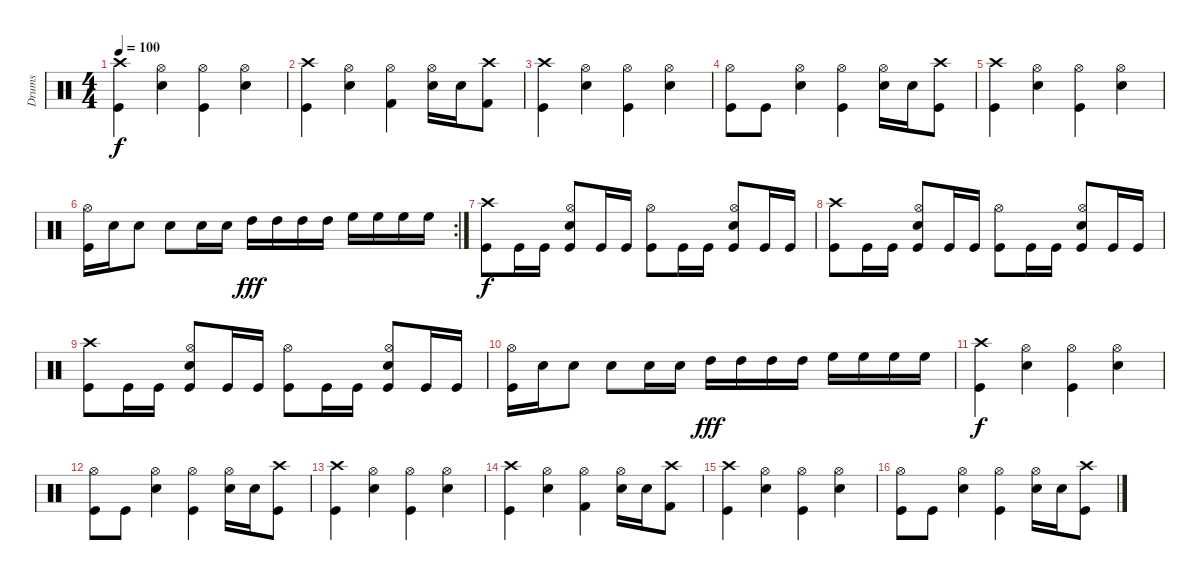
\track ("Drums" "Drums") {instrument percussion}
\staff {score}
\articulation defaults
\ts (4 4)
\tempo 100
\clef neutral
\ks c
("Crash high (hit)" "Kick (hit)").4{dy f} ("Hi-Hat (open)" "Electric Snare (hit)").4 ("Hi-Hat (open)" "Kick (hit)").4 ("Hi-Hat (open)" "Electric Snare (hit)").4 |
("Crash high (hit)" "Kick (hit)").4 ("Hi-Hat (open)" "Electric Snare (hit)").4 ("Hi-Hat (open)" "Kick (hit) 2").4 ("Hi-Hat (open)" "Electric Snare (hit)").16 "Electric Snare (hit)".16 ("Crash high (hit)" "Kick (hit) 2").8 |
("Crash high (hit)" "Kick (hit)").4 ("Hi-Hat (open)" "Electric Snare (hit)").4 ("Hi-Hat (open)" "Kick (hit)").4 ("Hi-Hat (open)" "Electric Snare (hit)").4 |
("Hi-Hat (open)" "Kick (hit)").8 "Kick (hit)".8 ("Hi-Hat (open)" "Electric Snare (hit)").4 ("Hi-Hat (open)" "Kick (hit)").4 ("Hi-Hat (open)" "Electric Snare (hit)").16 "Electric Snare (hit)".16 ("Crash high (hit)" "Kick (hit)").8 |
("Crash high (hit)" "Kick (hit)").4 ("Hi-Hat (open)" "Electric Snare (hit)").4 ("Hi-Hat (open)" "Kick (hit)").4 ("Hi-Hat (open)" "Electric Snare (hit)").4 |
\rc 2
("Hi-Hat (open)" "Kick (hit)").16 "Electric Snare (hit)".16 "Electric Snare (hit)".8 "Electric Snare (hit)".8 "Electric Snare (hit)".16 "Electric Snare (hit)".16 "High Tom (hit)".16{dy fff} "High Tom (hit)".16 "High Tom (hit)".16 "High Tom (hit)".16 "High Floor Tom (hit)".16 "High Floor Tom (hit)".16 "High Floor Tom (hit)".16 "High Floor Tom (hit)".16 |
("Crash high (hit)" "Kick (hit)").8{dy f} "Kick (hit)".16 "Kick (hit)".16 ("Hi-Hat (open)" "Electric Snare (hit)" "Kick (hit)").8 "Kick (hit)".16 "Kick (hit)".16 ("Hi-Hat (open)" "Kick (hit)").8 "Kick (hit)".16 "Kick (hit)".16 ("Hi-Hat (open)" "Electric Snare (hit)" "Kick (hit)").8 "Kick (hit)".16 "Kick (hit)".16 |
("Crash high (hit)" "Kick (hit)").8 "Kick (hit)".16 "Kick (hit)".16 ("Hi-Hat (open)" "Electric Snare (hit)" "Kick (hit)").8 "Kick (hit)".16 "Kick (hit)".16 ("Hi-Hat (open)" "Kick (hit)").8 "Kick (hit)".16 "Kick (hit)".16 ("Hi-Hat (open)" "Electric Snare (hit)" "Kick (hit)").8 "Kick (hit)".16 "Kick (hit)".16 |
("Crash high (hit)" "Kick (hit)").8 "Kick (hit)".16 "Kick (hit)".16 ("Hi-Hat (open)" "Electric Snare (hit)" "Kick (hit)").8 "Kick (hit)".16 "Kick (hit)".16 ("Hi-Hat (open)" "Kick (hit)").8 "Kick (hit)".16 "Kick (hit)".16 ("Hi-Hat (open)" "Electric Snare (hit)" "Kick (hit)").8 "Kick (hit)".16 "Kick (hit)".16 |
("Hi-Hat (open)" "Kick (hit)").16 "Electric Snare (hit)".16 "Electric Snare (hit)".8 "Electric Snare (hit)".8 "Electric Snare (hit)".16 "Electric Snare (hit)".16 "High Tom (hit)".16{dy fff} "High Tom (hit)".16 "High Tom (hit)".16 "High Tom (hit)".16 "High Floor Tom (hit)".16 "High Floor Tom (hit)".16 "High Floor Tom (hit)".16 "High Floor Tom (hit)".16 |
("Crash high (hit)" "Kick (hit)").4{dy f} ("Hi-Hat (open)" "Electric Snare (hit)").4 ("Hi-Hat (open)" "Kick (hit)").4 ("Hi-Hat (open)" "Electric Snare (hit)").4 |
("Hi-Hat (open)" "Kick (hit)").8 "Kick (hit)".8 ("Hi-Hat (open)" "Electric Snare (hit)").4 ("Hi-Hat (open)" "Kick (hit)").4 ("Hi-Hat (open)" "Electric Snare (hit)").16 "Electric Snare (hit)".16 ("Crash high (hit)" "Kick (hit)").8 |
("Crash high (hit)" "Kick (hit)").4 ("Hi-Hat (open)" "Electric Snare (hit)").4 ("Hi-Hat (open)" "Kick (hit)").4 ("Hi-Hat (open)" "Electric Snare (hit)").4 |
("Crash high (hit)" "Kick (hit)").4 ("Hi-Hat (open)" "Electric Snare (hit)").4 ("Hi-Hat (open)" "Kick (hit) 2").4 ("Hi-Hat (open)" "Electric Snare (hit)").16 "Electric Snare (hit)".16 ("Crash high (hit)" "Kick (hit) 2").8 |
("Crash high (hit)" "Kick (hit)").4 ("Hi-Hat (open)" "Electric Snare (hit)").4 ("Hi-Hat (open)" "Kick (hit)").4 ("Hi-Hat (open)" "Electric Snare (hit)").4 |
("Hi-Hat (open)" "Kick (hit)").8 "Kick (hit)".8 ("Hi-Hat (open)" "Electric Snare (hit)").4 ("Hi-Hat (open)" "Kick (hit)").4 ("Hi-Hat (open)" "Electric Snare (hit)").16 "Electric Snare (hit)".16 ("Crash high (hit)" "Kick (hit)").8
